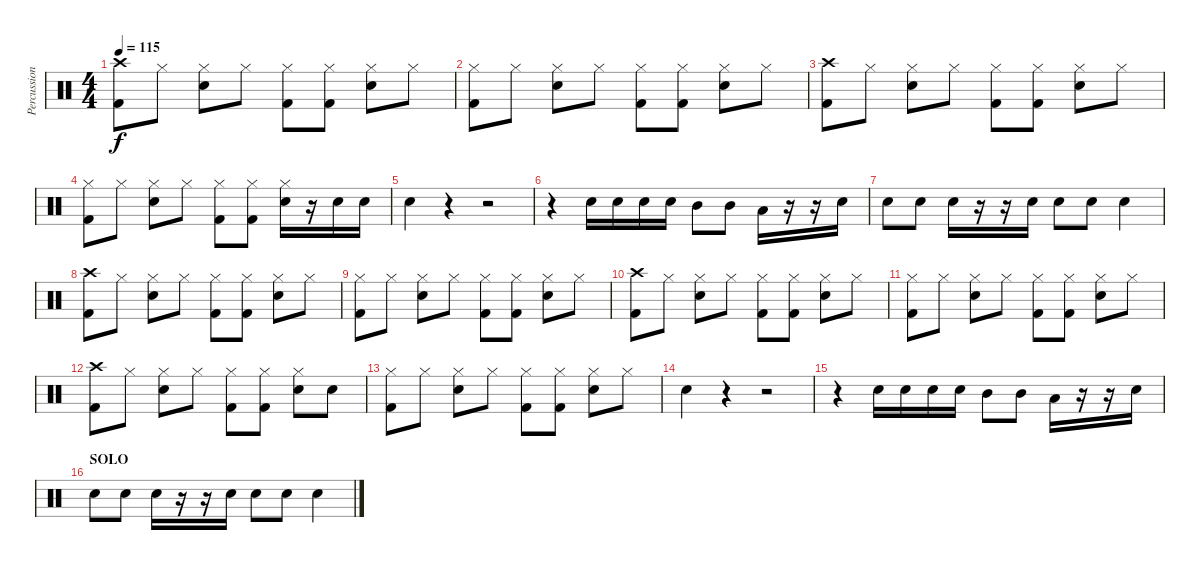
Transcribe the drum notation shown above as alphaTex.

\track ("Percussions" "Percussion") {instrument percussion}
\staff {score}
\articulation defaults
\ts (4 4)
\tempo 115
\clef neutral
\ks c
("Crash high (hit)" "Kick (hit) 2").8{dy f} "Hi-Hat (closed)".8 ("Hi-Hat (closed)" "Snare (hit) 2").8 "Hi-Hat (closed)".8 ("Hi-Hat (closed)" "Kick (hit) 2").8 ("Hi-Hat (closed)" "Kick (hit) 2").8 ("Hi-Hat (closed)" "Snare (hit) 2").8 "Hi-Hat (closed)".8 |
("Hi-Hat (closed)" "Kick (hit) 2").8 "Hi-Hat (closed)".8 ("Hi-Hat (closed)" "Snare (hit) 2").8 "Hi-Hat (closed)".8 ("Hi-Hat (closed)" "Kick (hit) 2").8 ("Hi-Hat (closed)" "Kick (hit) 2").8 ("Hi-Hat (closed)" "Snare (hit) 2").8 "Hi-Hat (closed)".8 |
("Crash high (hit)" "Kick (hit) 2").8 "Hi-Hat (closed)".8 ("Hi-Hat (closed)" "Snare (hit) 2").8 "Hi-Hat (closed)".8 ("Hi-Hat (closed)" "Kick (hit) 2").8 ("Hi-Hat (closed)" "Kick (hit) 2").8 ("Hi-Hat (closed)" "Snare (hit) 2").8 "Hi-Hat (closed)".8 |
("Hi-Hat (closed)" "Kick (hit) 2").8 "Hi-Hat (closed)".8 ("Hi-Hat (closed)" "Snare (hit) 2").8 "Hi-Hat (closed)".8 ("Hi-Hat (closed)" "Kick (hit) 2").8 ("Hi-Hat (closed)" "Kick (hit) 2").8 ("Hi-Hat (closed)" "Snare (hit) 2").16 r.16 "Snare (hit) 2".16 "Snare (hit) 2".16 |
"Snare (hit) 2".4 r.4 r.2 |
r.4 "Snare (hit) 2".16 "Snare (hit) 2".16 "Snare (hit) 2".16 "Snare (hit) 2".16 "Mid Tom (hit)".8 "Mid Tom (hit)".8 "Low Tom (hit)".16 r.16 r.16 "Snare (hit) 2".16 |
"Snare (hit) 2".8 "Snare (hit) 2".8 "Snare (hit) 2".16 r.16 r.16 "Snare (hit) 2".16 "Snare (hit) 2".8 "Snare (hit) 2".8 "Snare (hit) 2".4 |
("Crash high (hit)" "Kick (hit) 2").8 "Hi-Hat (closed)".8 ("Hi-Hat (closed)" "Snare (hit) 2").8 "Hi-Hat (closed)".8 ("Hi-Hat (closed)" "Kick (hit) 2").8 ("Hi-Hat (closed)" "Kick (hit) 2").8 ("Hi-Hat (closed)" "Snare (hit) 2").8 "Hi-Hat (closed)".8 |
("Hi-Hat (closed)" "Kick (hit) 2").8 "Hi-Hat (closed)".8 ("Hi-Hat (closed)" "Snare (hit) 2").8 "Hi-Hat (closed)".8 ("Hi-Hat (closed)" "Kick (hit) 2").8 ("Hi-Hat (closed)" "Kick (hit) 2").8 ("Hi-Hat (closed)" "Snare (hit) 2").8 "Hi-Hat (closed)".8 |
("Crash high (hit)" "Kick (hit) 2").8 "Hi-Hat (closed)".8 ("Hi-Hat (closed)" "Snare (hit) 2").8 "Hi-Hat (closed)".8 ("Hi-Hat (closed)" "Kick (hit) 2").8 ("Hi-Hat (closed)" "Kick (hit) 2").8 ("Hi-Hat (closed)" "Snare (hit) 2").8 "Hi-Hat (closed)".8 |
("Hi-Hat (closed)" "Kick (hit) 2").8 "Hi-Hat (closed)".8 ("Hi-Hat (closed)" "Snare (hit) 2").8 "Hi-Hat (closed)".8 ("Hi-Hat (closed)" "Kick (hit) 2").8 ("Hi-Hat (closed)" "Kick (hit) 2").8 ("Hi-Hat (closed)" "Snare (hit) 2").8 "Hi-Hat (closed)".8 |
("Crash high (hit)" "Kick (hit) 2").8 "Hi-Hat (closed)".8 ("Hi-Hat (closed)" "Snare (hit) 2").8 "Hi-Hat (closed)".8 ("Hi-Hat (closed)" "Kick (hit) 2").8 ("Hi-Hat (closed)" "Kick (hit) 2").8 ("Hi-Hat (closed)" "Snare (hit) 2").8 "Snare (hit)".8 |
("Hi-Hat (closed)" "Kick (hit) 2").8 "Hi-Hat (closed)".8 ("Hi-Hat (closed)" "Snare (hit) 2").8 "Hi-Hat (closed)".8 ("Hi-Hat (closed)" "Kick (hit) 2").8 ("Hi-Hat (closed)" "Kick (hit) 2").8 ("Hi-Hat (closed)" "Snare (hit) 2").8 "Hi-Hat (closed)".8 |
"Snare (hit) 2".4 r.4 r.2 |
r.4 "Snare (hit) 2".16 "Snare (hit) 2".16 "Snare (hit) 2".16 "Snare (hit) 2".16 "Mid Tom (hit)".8 "Mid Tom (hit)".8 "Low Tom (hit)".16 r.16 r.16 "Snare (hit) 2".16 |
\section ("" "SOLO")
"Snare (hit) 2".8 "Snare (hit) 2".8 "Snare (hit) 2".16 r.16 r.16 "Snare (hit) 2".16 "Snare (hit) 2".8 "Snare (hit) 2".8 "Snare (hit) 2".4
